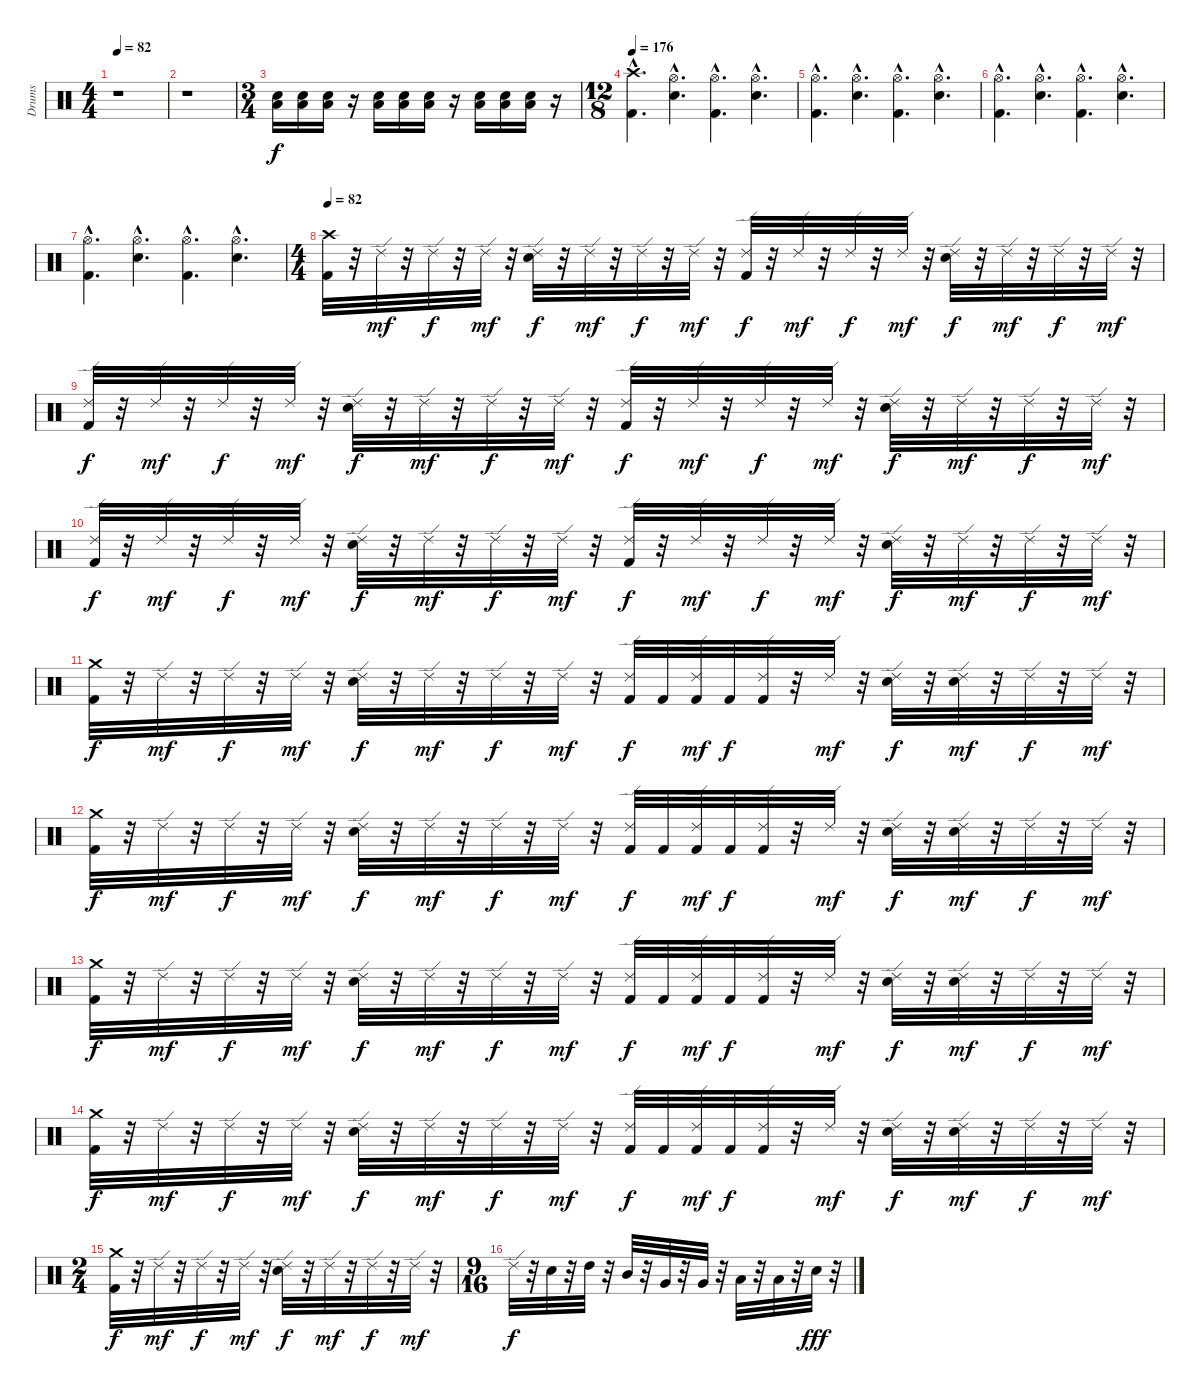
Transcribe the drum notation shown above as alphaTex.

\track ("Drums" "Drums") {instrument percussion}
\staff {score}
\articulation defaults
\ts (4 4)
\tempo 82
\clef neutral
\ks c
r.1{dy f} |
r.1 |
\ts (3 4)
("Low Floor Tom (hit)" "Snare (hit) 2").16 ("Low Floor Tom (hit)" "Snare (hit) 2").16 ("Low Floor Tom (hit)" "Snare (hit) 2").16 r.16 ("Low Floor Tom (hit)" "Snare (hit) 2").16 ("Low Floor Tom (hit)" "Snare (hit) 2").16 ("Low Floor Tom (hit)" "Snare (hit) 2").16 r.16 ("Snare (hit) 2" "Low Floor Tom (hit)").16 ("Snare (hit) 2" "Low Floor Tom (hit)").16 ("Snare (hit) 2" "Low Floor Tom (hit)").16 r.16 |
\ts (12 8)
\tempo 176
("Kick (hit) 2"{hac} "Crash high (hit)"{hac}).4{d} ("Snare (hit) 2"{hac} "Hi-Hat (open)"{hac}).4{d} ("Kick (hit) 2"{hac} "Hi-Hat (open)"{hac}).4{d} ("Snare (hit) 2"{hac} "Hi-Hat (open)"{hac}).4{d} |
("Kick (hit) 2"{hac} "Hi-Hat (open)"{hac}).4{d} ("Snare (hit) 2"{hac} "Hi-Hat (open)"{hac}).4{d} ("Kick (hit) 2"{hac} "Hi-Hat (open)"{hac}).4{d} ("Snare (hit) 2"{hac} "Hi-Hat (open)"{hac}).4{d} |
("Kick (hit) 2"{hac} "Hi-Hat (open)"{hac}).4{d} ("Snare (hit) 2"{hac} "Hi-Hat (open)"{hac}).4{d} ("Kick (hit) 2"{hac} "Hi-Hat (open)"{hac}).4{d} ("Snare (hit) 2"{hac} "Hi-Hat (open)"{hac}).4{d} |
("Kick (hit) 2"{hac} "Hi-Hat (open)"{hac}).4{d} ("Snare (hit) 2"{hac} "Hi-Hat (open)"{hac}).4{d} ("Kick (hit) 2"{hac} "Hi-Hat (open)"{hac}).4{d} ("Snare (hit) 2"{hac} "Hi-Hat (open)"{hac}).4{d} |
\ts (4 4)
\tempo 82
("Crash high (hit)" "Kick (hit) 2").32 r.32 "Ride (edge) 2".32{dy mf} r.32 "Ride (edge) 2".32{dy f} r.32 "Ride (edge) 2".32{dy mf} r.32 ("Ride (edge) 2" "Snare (hit) 2").32{dy f} r.32 "Ride (edge) 2".32{dy mf} r.32 "Ride (edge) 2".32{dy f} r.32 "Ride (edge) 2".32{dy mf} r.32 ("Ride (edge) 2" "Kick (hit) 2").32{dy f} r.32 "Ride (edge) 2".32{dy mf} r.32 "Ride (edge) 2".32{dy f} r.32 "Ride (edge) 2".32{dy mf} r.32 ("Ride (edge) 2" "Snare (hit) 2").32{dy f} r.32 "Ride (edge) 2".32{dy mf} r.32 "Ride (edge) 2".32{dy f} r.32 "Ride (edge) 2".32{dy mf} r.32 |
("Ride (edge) 2" "Kick (hit) 2").32{dy f} r.32 "Ride (edge) 2".32{dy mf} r.32 "Ride (edge) 2".32{dy f} r.32 "Ride (edge) 2".32{dy mf} r.32 ("Ride (edge) 2" "Snare (hit) 2").32{dy f} r.32 "Ride (edge) 2".32{dy mf} r.32 "Ride (edge) 2".32{dy f} r.32 "Ride (edge) 2".32{dy mf} r.32 ("Ride (edge) 2" "Kick (hit) 2").32{dy f} r.32 "Ride (edge) 2".32{dy mf} r.32 "Ride (edge) 2".32{dy f} r.32 "Ride (edge) 2".32{dy mf} r.32 ("Ride (edge) 2" "Snare (hit) 2").32{dy f} r.32 "Ride (edge) 2".32{dy mf} r.32 "Ride (edge) 2".32{dy f} r.32 "Ride (edge) 2".32{dy mf} r.32 |
("Ride (edge) 2" "Kick (hit) 2").32{dy f} r.32 "Ride (edge) 2".32{dy mf} r.32 "Ride (edge) 2".32{dy f} r.32 "Ride (edge) 2".32{dy mf} r.32 ("Ride (edge) 2" "Snare (hit) 2").32{dy f} r.32 "Ride (edge) 2".32{dy mf} r.32 "Ride (edge) 2".32{dy f} r.32 "Ride (edge) 2".32{dy mf} r.32 ("Ride (edge) 2" "Kick (hit) 2").32{dy f} r.32 "Ride (edge) 2".32{dy mf} r.32 "Ride (edge) 2".32{dy f} r.32 "Ride (edge) 2".32{dy mf} r.32 ("Ride (edge) 2" "Snare (hit) 2").32{dy f} r.32 "Ride (edge) 2".32{dy mf} r.32 "Ride (edge) 2".32{dy f} r.32 "Ride (edge) 2".32{dy mf} r.32 |
("Crash medium (hit)" "Kick (hit) 2").32{dy f} r.32 "Ride (edge) 2".32{dy mf} r.32 "Ride (edge) 2".32{dy f} r.32 "Ride (edge) 2".32{dy mf} r.32 ("Ride (edge) 2" "Snare (hit) 2").32{dy f} r.32 "Ride (edge) 2".32{dy mf} r.32 "Ride (edge) 2".32{dy f} r.32 "Ride (edge) 2".32{dy mf} r.32 ("Ride (edge) 2" "Kick (hit) 2").32{dy f} "Kick (hit) 2".32 ("Kick (hit) 2" "Ride (edge) 2").32{dy mf} "Kick (hit) 2".32{dy f} ("Kick (hit) 2" "Ride (edge) 2").32 r.32 "Ride (edge) 2".32{dy mf} r.32 ("Ride (edge) 2" "Snare (hit) 2").32{dy f} r.32 ("Snare (hit) 2" "Ride (edge) 2").32{dy mf} r.32 "Ride (edge) 2".32{dy f} r.32 "Ride (edge) 2".32{dy mf} r.32 |
("Crash medium (hit)" "Kick (hit) 2").32{dy f} r.32 "Ride (edge) 2".32{dy mf} r.32 "Ride (edge) 2".32{dy f} r.32 "Ride (edge) 2".32{dy mf} r.32 ("Ride (edge) 2" "Snare (hit) 2").32{dy f} r.32 "Ride (edge) 2".32{dy mf} r.32 "Ride (edge) 2".32{dy f} r.32 "Ride (edge) 2".32{dy mf} r.32 ("Ride (edge) 2" "Kick (hit) 2").32{dy f} "Kick (hit) 2".32 ("Kick (hit) 2" "Ride (edge) 2").32{dy mf} "Kick (hit) 2".32{dy f} ("Kick (hit) 2" "Ride (edge) 2").32 r.32 "Ride (edge) 2".32{dy mf} r.32 ("Ride (edge) 2" "Snare (hit) 2").32{dy f} r.32 ("Snare (hit) 2" "Ride (edge) 2").32{dy mf} r.32 "Ride (edge) 2".32{dy f} r.32 "Ride (edge) 2".32{dy mf} r.32 |
("Crash medium (hit)" "Kick (hit) 2").32{dy f} r.32 "Ride (edge) 2".32{dy mf} r.32 "Ride (edge) 2".32{dy f} r.32 "Ride (edge) 2".32{dy mf} r.32 ("Ride (edge) 2" "Snare (hit) 2").32{dy f} r.32 "Ride (edge) 2".32{dy mf} r.32 "Ride (edge) 2".32{dy f} r.32 "Ride (edge) 2".32{dy mf} r.32 ("Ride (edge) 2" "Kick (hit) 2").32{dy f} "Kick (hit) 2".32 ("Kick (hit) 2" "Ride (edge) 2").32{dy mf} "Kick (hit) 2".32{dy f} ("Kick (hit) 2" "Ride (edge) 2").32 r.32 "Ride (edge) 2".32{dy mf} r.32 ("Ride (edge) 2" "Snare (hit) 2").32{dy f} r.32 ("Snare (hit) 2" "Ride (edge) 2").32{dy mf} r.32 "Ride (edge) 2".32{dy f} r.32 "Ride (edge) 2".32{dy mf} r.32 |
("Crash medium (hit)" "Kick (hit) 2").32{dy f} r.32 "Ride (edge) 2".32{dy mf} r.32 "Ride (edge) 2".32{dy f} r.32 "Ride (edge) 2".32{dy mf} r.32 ("Ride (edge) 2" "Snare (hit) 2").32{dy f} r.32 "Ride (edge) 2".32{dy mf} r.32 "Ride (edge) 2".32{dy f} r.32 "Ride (edge) 2".32{dy mf} r.32 ("Ride (edge) 2" "Kick (hit) 2").32{dy f} "Kick (hit) 2".32 ("Kick (hit) 2" "Ride (edge) 2").32{dy mf} "Kick (hit) 2".32{dy f} ("Kick (hit) 2" "Ride (edge) 2").32 r.32 "Ride (edge) 2".32{dy mf} r.32 ("Ride (edge) 2" "Snare (hit) 2").32{dy f} r.32 ("Snare (hit) 2" "Ride (edge) 2").32{dy mf} r.32 "Ride (edge) 2".32{dy f} r.32 "Ride (edge) 2".32{dy mf} r.32 |
\ts (2 4)
("Crash medium (hit)" "Kick (hit) 2").32{dy f} r.32 "Ride (edge) 2".32{dy mf} r.32 "Ride (edge) 2".32{dy f} r.32 "Ride (edge) 2".32{dy mf} r.32 ("Ride (edge) 2" "Snare (hit) 2").32{dy f} r.32 "Ride (edge) 2".32{dy mf} r.32 "Ride (edge) 2".32{dy f} r.32 "Ride (edge) 2".32{dy mf} r.32 |
\ts (9 16)
"Ride (edge) 2".32{dy f} r.32 "Snare (hit) 2".32 r.32 "High Tom (hit)".32 r.32 "Mid Tom (hit)".32 r.32 "Very Low Tom (hit)".32 r.32 "Very Low Tom (hit)".32 r.32 "Low Floor Tom (hit)".32 r.32 "Low Floor Tom (hit)".32 r.32 "Snare (hit) 2".32{dy fff} r.32
